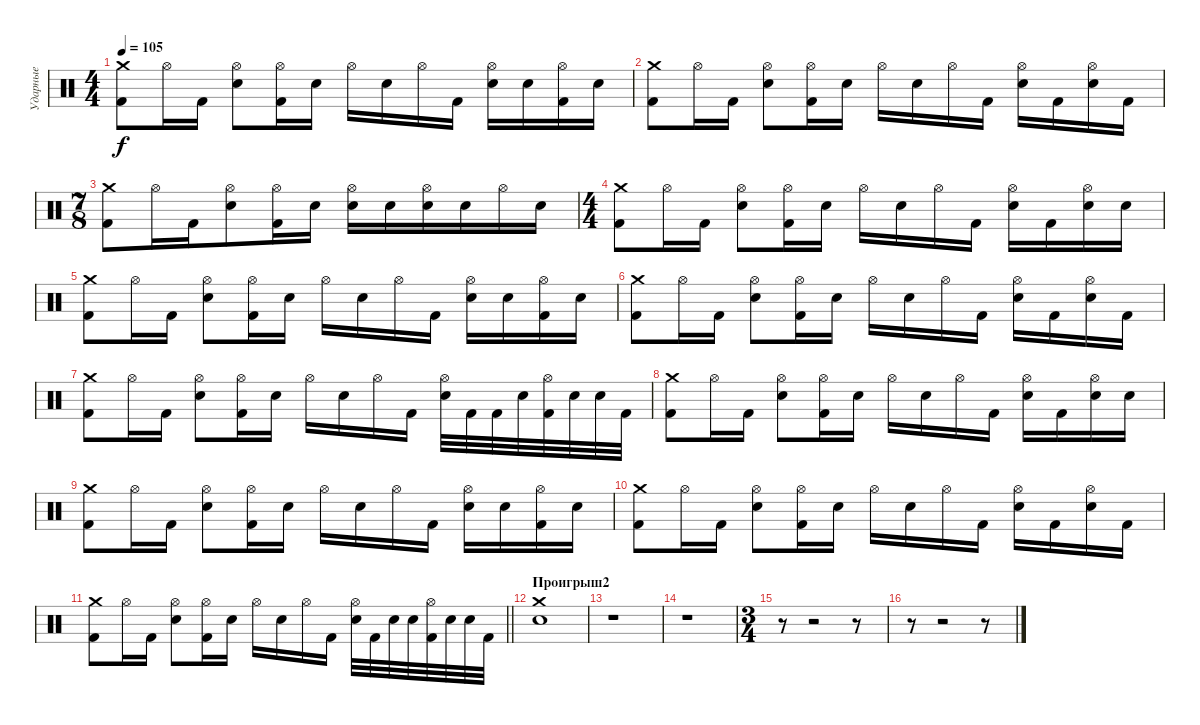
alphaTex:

\track ("Ударные" "Ударные") {instrument percussion}
\staff {score}
\articulation defaults
\ts (4 4)
\tempo 105
\clef neutral
\ks c
("Crash medium (hit)" "Kick (hit) 2").8{dy f} "Hi-Hat (open)".16 "Kick (hit) 2".16 ("Hi-Hat (open)" "Electric Snare (hit)").8 ("Hi-Hat (open)" "Kick (hit) 2").16 "Electric Snare (hit)".16 "Hi-Hat (open)".16 "Electric Snare (hit)".16 "Hi-Hat (open)".16 "Kick (hit) 2".16 ("Hi-Hat (open)" "Electric Snare (hit)").16 "Electric Snare (hit)".16 ("Hi-Hat (open)" "Kick (hit) 2").16 "Electric Snare (hit)".16 |
("Crash medium (hit)" "Kick (hit) 2").8 "Hi-Hat (open)".16 "Kick (hit) 2".16 ("Hi-Hat (open)" "Electric Snare (hit)").8 ("Hi-Hat (open)" "Kick (hit) 2").16 "Electric Snare (hit)".16 "Hi-Hat (open)".16 "Electric Snare (hit)".16 "Hi-Hat (open)".16 "Kick (hit) 2".16 ("Hi-Hat (open)" "Electric Snare (hit)").16 "Kick (hit) 2".16 ("Hi-Hat (open)" "Electric Snare (hit)").16 "Kick (hit) 2".16 |
\ts (7 8)
("Crash medium (hit)" "Kick (hit) 2").8 "Hi-Hat (open)".16 "Kick (hit) 2".16 ("Hi-Hat (open)" "Electric Snare (hit)").8 ("Hi-Hat (open)" "Kick (hit) 2").16 "Electric Snare (hit)".16 ("Hi-Hat (open)" "Electric Snare (hit)").16 "Electric Snare (hit)".16 ("Hi-Hat (open)" "Electric Snare (hit)").16 "Electric Snare (hit)".16 "Hi-Hat (open)".16 "Electric Snare (hit)".16 |
\ts (4 4)
("Crash medium (hit)" "Kick (hit) 2").8 "Hi-Hat (open)".16 "Kick (hit) 2".16 ("Hi-Hat (open)" "Electric Snare (hit)").8 ("Hi-Hat (open)" "Kick (hit) 2").16 "Electric Snare (hit)".16 "Hi-Hat (open)".16 "Electric Snare (hit)".16 "Hi-Hat (open)".16 "Kick (hit) 2".16 ("Hi-Hat (open)" "Electric Snare (hit)").16 "Kick (hit) 2".16 ("Hi-Hat (open)" "Electric Snare (hit)").16 "Electric Snare (hit)".16 |
("Crash medium (hit)" "Kick (hit) 2").8 "Hi-Hat (open)".16 "Kick (hit) 2".16 ("Hi-Hat (open)" "Electric Snare (hit)").8 ("Hi-Hat (open)" "Kick (hit) 2").16 "Electric Snare (hit)".16 "Hi-Hat (open)".16 "Electric Snare (hit)".16 "Hi-Hat (open)".16 "Kick (hit) 2".16 ("Hi-Hat (open)" "Electric Snare (hit)").16 "Electric Snare (hit)".16 ("Hi-Hat (open)" "Kick (hit) 2").16 "Electric Snare (hit)".16 |
("Crash medium (hit)" "Kick (hit) 2").8 "Hi-Hat (open)".16 "Kick (hit) 2".16 ("Hi-Hat (open)" "Electric Snare (hit)").8 ("Hi-Hat (open)" "Kick (hit) 2").16 "Electric Snare (hit)".16 "Hi-Hat (open)".16 "Electric Snare (hit)".16 "Hi-Hat (open)".16 "Kick (hit) 2".16 ("Hi-Hat (open)" "Electric Snare (hit)").16 "Kick (hit) 2".16 ("Hi-Hat (open)" "Electric Snare (hit)").16 "Kick (hit) 2".16 |
("Crash medium (hit)" "Kick (hit) 2").8 "Hi-Hat (open)".16 "Kick (hit) 2".16 ("Hi-Hat (open)" "Electric Snare (hit)").8 ("Hi-Hat (open)" "Kick (hit) 2").16 "Electric Snare (hit)".16 "Hi-Hat (open)".16 "Electric Snare (hit)".16 "Hi-Hat (open)".16 "Kick (hit) 2".16 ("Electric Snare (hit)" "Hi-Hat (open)").32 "Kick (hit) 2".32 "Kick (hit) 2".32 "Electric Snare (hit)".32 ("Kick (hit) 2" "Hi-Hat (open)").32 "Electric Snare (hit)".32 "Electric Snare (hit)".32 "Kick (hit) 2".32 |
("Crash medium (hit)" "Kick (hit) 2").8 "Hi-Hat (open)".16 "Kick (hit) 2".16 ("Hi-Hat (open)" "Electric Snare (hit)").8 ("Hi-Hat (open)" "Kick (hit) 2").16 "Electric Snare (hit)".16 "Hi-Hat (open)".16 "Electric Snare (hit)".16 "Hi-Hat (open)".16 "Kick (hit) 2".16 ("Hi-Hat (open)" "Electric Snare (hit)").16 "Kick (hit) 2".16 ("Hi-Hat (open)" "Electric Snare (hit)").16 "Electric Snare (hit)".16 |
("Crash medium (hit)" "Kick (hit) 2").8 "Hi-Hat (open)".16 "Kick (hit) 2".16 ("Hi-Hat (open)" "Electric Snare (hit)").8 ("Hi-Hat (open)" "Kick (hit) 2").16 "Electric Snare (hit)".16 "Hi-Hat (open)".16 "Electric Snare (hit)".16 "Hi-Hat (open)".16 "Kick (hit) 2".16 ("Hi-Hat (open)" "Electric Snare (hit)").16 "Electric Snare (hit)".16 ("Hi-Hat (open)" "Kick (hit) 2").16 "Electric Snare (hit)".16 |
("Crash medium (hit)" "Kick (hit) 2").8 "Hi-Hat (open)".16 "Kick (hit) 2".16 ("Hi-Hat (open)" "Electric Snare (hit)").8 ("Hi-Hat (open)" "Kick (hit) 2").16 "Electric Snare (hit)".16 "Hi-Hat (open)".16 "Electric Snare (hit)".16 "Hi-Hat (open)".16 "Kick (hit) 2".16 ("Hi-Hat (open)" "Electric Snare (hit)").16 "Kick (hit) 2".16 ("Hi-Hat (open)" "Electric Snare (hit)").16 "Kick (hit) 2".16 |
\barLineRight lightlight
("Crash medium (hit)" "Kick (hit) 2").8 "Hi-Hat (open)".16 "Kick (hit) 2".16 ("Hi-Hat (open)" "Electric Snare (hit)").8 ("Hi-Hat (open)" "Kick (hit) 2").16 "Electric Snare (hit)".16 "Hi-Hat (open)".16 "Electric Snare (hit)".16 "Hi-Hat (open)".16 "Kick (hit) 2".16 ("Electric Snare (hit)" "Hi-Hat (open)").32 "Kick (hit) 2".32 "Electric Snare (hit)".32 "Electric Snare (hit)".32 ("Kick (hit) 2" "Hi-Hat (open)").32 "Electric Snare (hit)".32 "Electric Snare (hit)".32 "Kick (hit) 2".32 |
\section ("" "Проигрыш2")
("Crash medium (hit)" "Electric Snare (hit)").1 |
r.1 |
r.1 |
\ts (3 4)
r.8 r.2 r.8 |
r.8 r.2 r.8
